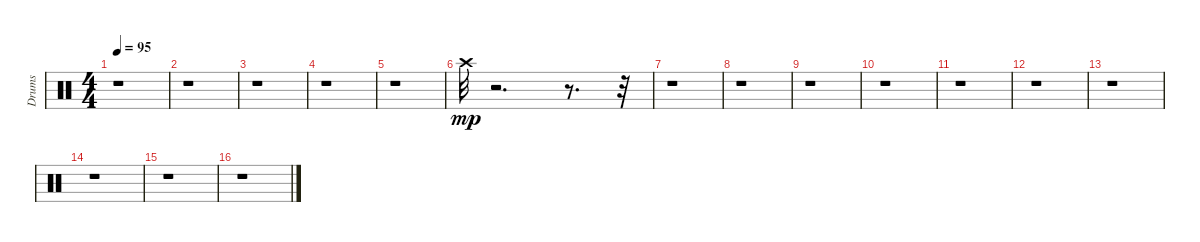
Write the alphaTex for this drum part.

\track ("Drums" "Drums") {instrument percussion}
\staff {score}
\articulation defaults
\ts (4 4)
\tempo 95
\clef neutral
\ks c
r.1{dy mp} |
r.1 |
r.1 |
r.1 |
r.1 |
"Crash high (hit)".32 r.2{d} r.8{d} r.32 |
r.1 |
r.1 |
r.1 |
r.1 |
r.1 |
r.1 |
r.1 |
r.1 |
r.1 |
r.1
